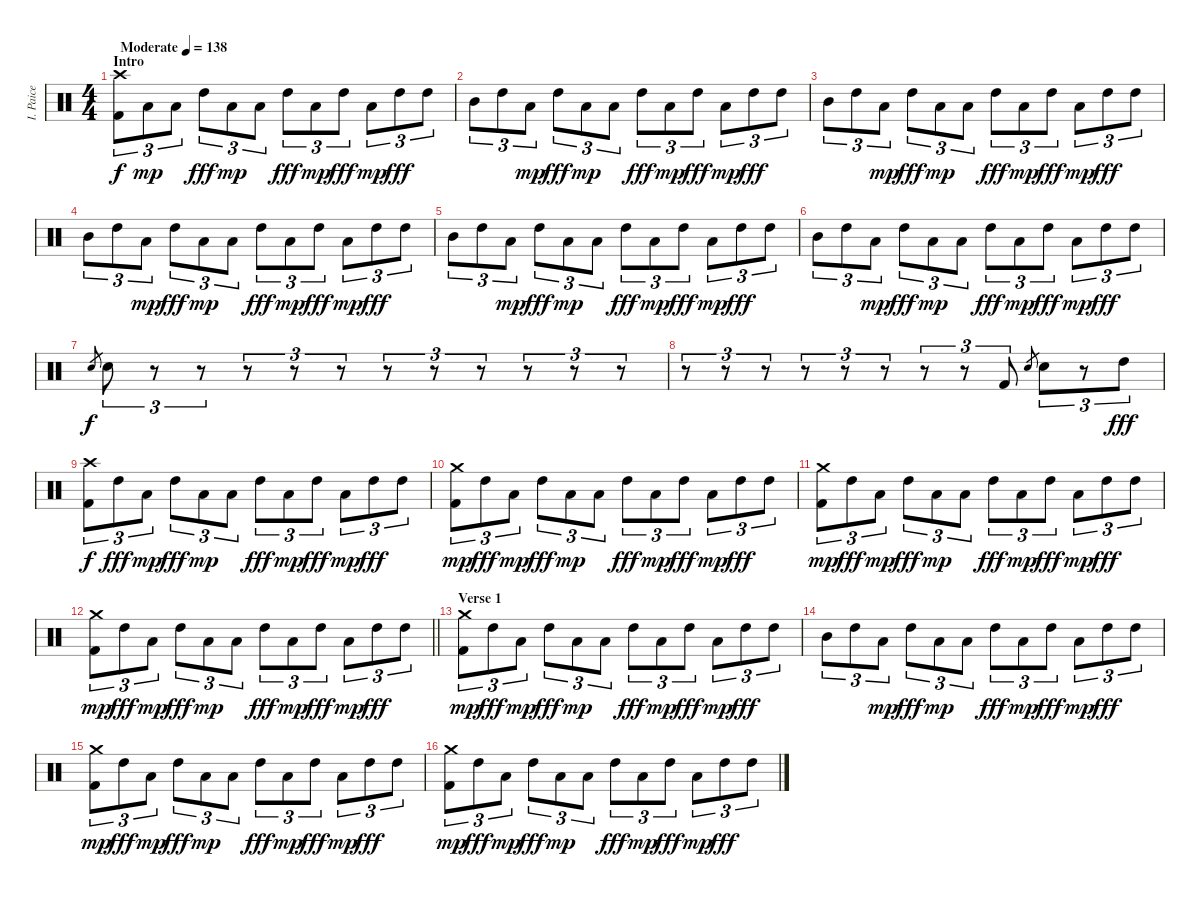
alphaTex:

\track ("I. Paice" "I. Paice") {instrument percussion}
\staff {score}
\articulation defaults
\ts (4 4)
\section ("" "Intro")
\tempo (138 "Moderate")
\clef neutral
\ks c
("Crash high (hit)" "Kick (hit) 2").8{tu (3 2) dy f} "Low Tom (hit)".8{tu (3 2) dy mp} "Low Tom (hit)".8{tu (3 2)} "High Tom (hit)".8{tu (3 2) dy fff} "Low Tom (hit)".8{tu (3 2) dy mp} "Low Tom (hit)".8{tu (3 2)} "High Tom (hit)".8{tu (3 2) dy fff} "Low Tom (hit)".8{tu (3 2) dy mp} "High Tom (hit)".8{tu (3 2) dy fff} "Low Tom (hit)".8{tu (3 2) dy mp} "High Tom (hit)".8{tu (3 2) dy fff} "High Tom (hit)".8{tu (3 2)} |
"Mid Tom (hit)".8{tu (3 2)} "High Tom (hit)".8{tu (3 2)} "Low Tom (hit)".8{tu (3 2) dy mp} "High Tom (hit)".8{tu (3 2) dy fff} "Low Tom (hit)".8{tu (3 2) dy mp} "Low Tom (hit)".8{tu (3 2)} "High Tom (hit)".8{tu (3 2) dy fff} "Low Tom (hit)".8{tu (3 2) dy mp} "High Tom (hit)".8{tu (3 2) dy fff} "Low Tom (hit)".8{tu (3 2) dy mp} "High Tom (hit)".8{tu (3 2) dy fff} "High Tom (hit)".8{tu (3 2)} |
"Mid Tom (hit)".8{tu (3 2)} "High Tom (hit)".8{tu (3 2)} "Low Tom (hit)".8{tu (3 2) dy mp} "High Tom (hit)".8{tu (3 2) dy fff} "Low Tom (hit)".8{tu (3 2) dy mp} "Low Tom (hit)".8{tu (3 2)} "High Tom (hit)".8{tu (3 2) dy fff} "Low Tom (hit)".8{tu (3 2) dy mp} "High Tom (hit)".8{tu (3 2) dy fff} "Low Tom (hit)".8{tu (3 2) dy mp} "High Tom (hit)".8{tu (3 2) dy fff} "High Tom (hit)".8{tu (3 2)} |
"Mid Tom (hit)".8{tu (3 2)} "High Tom (hit)".8{tu (3 2)} "Low Tom (hit)".8{tu (3 2) dy mp} "High Tom (hit)".8{tu (3 2) dy fff} "Low Tom (hit)".8{tu (3 2) dy mp} "Low Tom (hit)".8{tu (3 2)} "High Tom (hit)".8{tu (3 2) dy fff} "Low Tom (hit)".8{tu (3 2) dy mp} "High Tom (hit)".8{tu (3 2) dy fff} "Low Tom (hit)".8{tu (3 2) dy mp} "High Tom (hit)".8{tu (3 2) dy fff} "High Tom (hit)".8{tu (3 2)} |
"Mid Tom (hit)".8{tu (3 2)} "High Tom (hit)".8{tu (3 2)} "Low Tom (hit)".8{tu (3 2) dy mp} "High Tom (hit)".8{tu (3 2) dy fff} "Low Tom (hit)".8{tu (3 2) dy mp} "Low Tom (hit)".8{tu (3 2)} "High Tom (hit)".8{tu (3 2) dy fff} "Low Tom (hit)".8{tu (3 2) dy mp} "High Tom (hit)".8{tu (3 2) dy fff} "Low Tom (hit)".8{tu (3 2) dy mp} "High Tom (hit)".8{tu (3 2) dy fff} "High Tom (hit)".8{tu (3 2)} |
"Mid Tom (hit)".8{tu (3 2)} "High Tom (hit)".8{tu (3 2)} "Low Tom (hit)".8{tu (3 2) dy mp} "High Tom (hit)".8{tu (3 2) dy fff} "Low Tom (hit)".8{tu (3 2) dy mp} "Low Tom (hit)".8{tu (3 2)} "High Tom (hit)".8{tu (3 2) dy fff} "Low Tom (hit)".8{tu (3 2) dy mp} "High Tom (hit)".8{tu (3 2) dy fff} "Low Tom (hit)".8{tu (3 2) dy mp} "High Tom (hit)".8{tu (3 2) dy fff} "High Tom (hit)".8{tu (3 2)} |
"Snare (hit) 2".8{gr dy f} "Snare (hit) 2".8{tu (3 2)} r.8{tu (3 2)} r.8{tu (3 2)} r.8{tu (3 2)} r.8{tu (3 2)} r.8{tu (3 2)} r.8{tu (3 2)} r.8{tu (3 2)} r.8{tu (3 2)} r.8{tu (3 2)} r.8{tu (3 2)} r.8{tu (3 2)} |
r.8{tu (3 2)} r.8{tu (3 2)} r.8{tu (3 2)} r.8{tu (3 2)} r.8{tu (3 2)} r.8{tu (3 2)} r.8{tu (3 2)} r.8{tu (3 2)} "Kick (hit) 2".8{tu (3 2)} "Snare (hit) 2".8{gr} "Snare (hit) 2".8{tu (3 2)} r.8{tu (3 2)} "High Tom (hit)".8{tu (3 2) dy fff} |
("Crash high (hit)" "Kick (hit) 2").8{tu (3 2) dy f} "High Tom (hit)".8{tu (3 2) dy fff} "Low Tom (hit)".8{tu (3 2) dy mp} "High Tom (hit)".8{tu (3 2) dy fff} "Low Tom (hit)".8{tu (3 2) dy mp} "Low Tom (hit)".8{tu (3 2)} "High Tom (hit)".8{tu (3 2) dy fff} "Low Tom (hit)".8{tu (3 2) dy mp} "High Tom (hit)".8{tu (3 2) dy fff} "Low Tom (hit)".8{tu (3 2) dy mp} "High Tom (hit)".8{tu (3 2) dy fff} "High Tom (hit)".8{tu (3 2)} |
("Crash medium (hit)" "Kick (hit) 2").8{tu (3 2) dy mp} "High Tom (hit)".8{tu (3 2) dy fff} "Low Tom (hit)".8{tu (3 2) dy mp} "High Tom (hit)".8{tu (3 2) dy fff} "Low Tom (hit)".8{tu (3 2) dy mp} "Low Tom (hit)".8{tu (3 2)} "High Tom (hit)".8{tu (3 2) dy fff} "Low Tom (hit)".8{tu (3 2) dy mp} "High Tom (hit)".8{tu (3 2) dy fff} "Low Tom (hit)".8{tu (3 2) dy mp} "High Tom (hit)".8{tu (3 2) dy fff} "High Tom (hit)".8{tu (3 2)} |
("Crash medium (hit)" "Kick (hit) 2").8{tu (3 2) dy mp} "High Tom (hit)".8{tu (3 2) dy fff} "Low Tom (hit)".8{tu (3 2) dy mp} "High Tom (hit)".8{tu (3 2) dy fff} "Low Tom (hit)".8{tu (3 2) dy mp} "Low Tom (hit)".8{tu (3 2)} "High Tom (hit)".8{tu (3 2) dy fff} "Low Tom (hit)".8{tu (3 2) dy mp} "High Tom (hit)".8{tu (3 2) dy fff} "Low Tom (hit)".8{tu (3 2) dy mp} "High Tom (hit)".8{tu (3 2) dy fff} "High Tom (hit)".8{tu (3 2)} |
\barLineRight lightlight
("Crash medium (hit)" "Kick (hit) 2").8{tu (3 2) dy mp} "High Tom (hit)".8{tu (3 2) dy fff} "Low Tom (hit)".8{tu (3 2) dy mp} "High Tom (hit)".8{tu (3 2) dy fff} "Low Tom (hit)".8{tu (3 2) dy mp} "Low Tom (hit)".8{tu (3 2)} "High Tom (hit)".8{tu (3 2) dy fff} "Low Tom (hit)".8{tu (3 2) dy mp} "High Tom (hit)".8{tu (3 2) dy fff} "Low Tom (hit)".8{tu (3 2) dy mp} "High Tom (hit)".8{tu (3 2) dy fff} "High Tom (hit)".8{tu (3 2)} |
\section ("" "Verse 1")
("Crash medium (hit)" "Kick (hit) 2").8{tu (3 2) dy mp} "High Tom (hit)".8{tu (3 2) dy fff} "Low Tom (hit)".8{tu (3 2) dy mp} "High Tom (hit)".8{tu (3 2) dy fff} "Low Tom (hit)".8{tu (3 2) dy mp} "Low Tom (hit)".8{tu (3 2)} "High Tom (hit)".8{tu (3 2) dy fff} "Low Tom (hit)".8{tu (3 2) dy mp} "High Tom (hit)".8{tu (3 2) dy fff} "Low Tom (hit)".8{tu (3 2) dy mp} "High Tom (hit)".8{tu (3 2) dy fff} "High Tom (hit)".8{tu (3 2)} |
"Mid Tom (hit)".8{tu (3 2)} "High Tom (hit)".8{tu (3 2)} "Low Tom (hit)".8{tu (3 2) dy mp} "High Tom (hit)".8{tu (3 2) dy fff} "Low Tom (hit)".8{tu (3 2) dy mp} "Low Tom (hit)".8{tu (3 2)} "High Tom (hit)".8{tu (3 2) dy fff} "Low Tom (hit)".8{tu (3 2) dy mp} "High Tom (hit)".8{tu (3 2) dy fff} "Low Tom (hit)".8{tu (3 2) dy mp} "High Tom (hit)".8{tu (3 2) dy fff} "High Tom (hit)".8{tu (3 2)} |
("Crash medium (hit)" "Kick (hit) 2").8{tu (3 2) dy mp} "High Tom (hit)".8{tu (3 2) dy fff} "Low Tom (hit)".8{tu (3 2) dy mp} "High Tom (hit)".8{tu (3 2) dy fff} "Low Tom (hit)".8{tu (3 2) dy mp} "Low Tom (hit)".8{tu (3 2)} "High Tom (hit)".8{tu (3 2) dy fff} "Low Tom (hit)".8{tu (3 2) dy mp} "High Tom (hit)".8{tu (3 2) dy fff} "Low Tom (hit)".8{tu (3 2) dy mp} "High Tom (hit)".8{tu (3 2) dy fff} "High Tom (hit)".8{tu (3 2)} |
("Crash medium (hit)" "Kick (hit) 2").8{tu (3 2) dy mp} "High Tom (hit)".8{tu (3 2) dy fff} "Low Tom (hit)".8{tu (3 2) dy mp} "High Tom (hit)".8{tu (3 2) dy fff} "Low Tom (hit)".8{tu (3 2) dy mp} "Low Tom (hit)".8{tu (3 2)} "High Tom (hit)".8{tu (3 2) dy fff} "Low Tom (hit)".8{tu (3 2) dy mp} "High Tom (hit)".8{tu (3 2) dy fff} "Low Tom (hit)".8{tu (3 2) dy mp} "High Tom (hit)".8{tu (3 2) dy fff} "High Tom (hit)".8{tu (3 2)}
